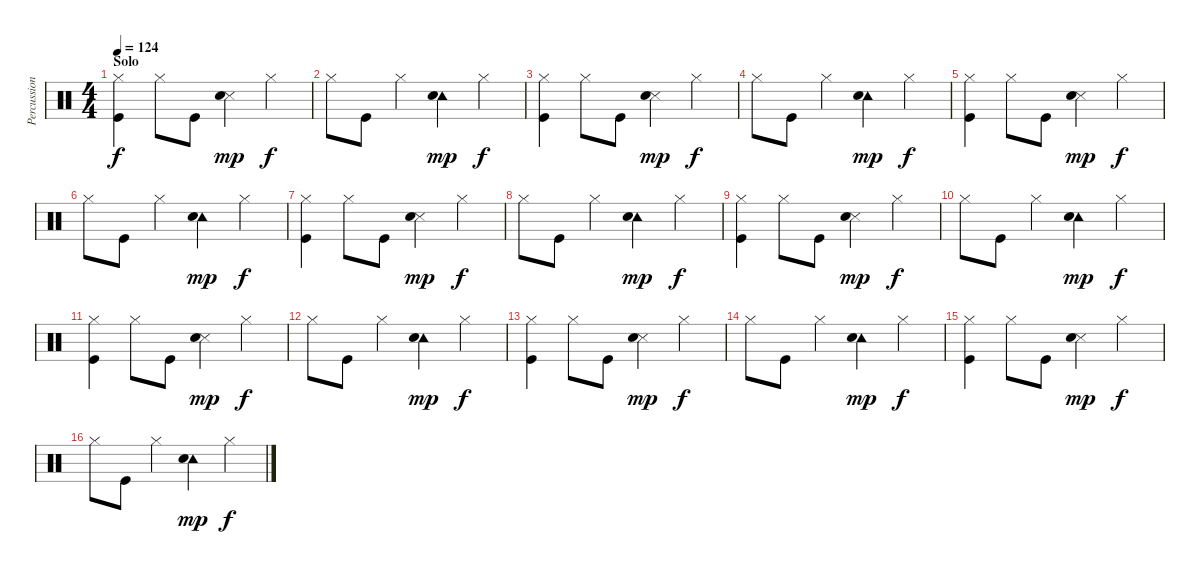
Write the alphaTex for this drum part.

\track ("Percussion" "Percussion") {instrument percussion}
\staff {score}
\articulation defaults
\ts (4 4)
\section ("" "Solo")
\tempo 124
\clef neutral
\ks c
("Hi-Hat (closed)" "Kick (hit)").4{dy f} "Hi-Hat (closed)".8 "Kick (hit)".8 ("Snare (side stick) 3" "Snare (hit) 2").4{dy mp} "Hi-Hat (closed)".4{dy f} |
"Hi-Hat (closed)".8 "Kick (hit)".8 "Hi-Hat (closed)".4 ("Tambourine (hit)" "Snare (hit) 2").4{dy mp} "Hi-Hat (closed)".4{dy f} |
("Hi-Hat (closed)" "Kick (hit)").4 "Hi-Hat (closed)".8 "Kick (hit)".8 ("Snare (side stick) 3" "Snare (hit) 2").4{dy mp} "Hi-Hat (closed)".4{dy f} |
"Hi-Hat (closed)".8 "Kick (hit)".8 "Hi-Hat (closed)".4 ("Tambourine (hit)" "Snare (hit) 2").4{dy mp} "Hi-Hat (closed)".4{dy f} |
("Hi-Hat (closed)" "Kick (hit)").4 "Hi-Hat (closed)".8 "Kick (hit)".8 ("Snare (side stick) 3" "Snare (hit) 2").4{dy mp} "Hi-Hat (closed)".4{dy f} |
"Hi-Hat (closed)".8 "Kick (hit)".8 "Hi-Hat (closed)".4 ("Tambourine (hit)" "Snare (hit) 2").4{dy mp} "Hi-Hat (closed)".4{dy f} |
("Hi-Hat (closed)" "Kick (hit)").4 "Hi-Hat (closed)".8 "Kick (hit)".8 ("Snare (side stick) 3" "Snare (hit) 2").4{dy mp} "Hi-Hat (closed)".4{dy f} |
"Hi-Hat (closed)".8 "Kick (hit)".8 "Hi-Hat (closed)".4 ("Tambourine (hit)" "Snare (hit) 2").4{dy mp} "Hi-Hat (closed)".4{dy f} |
("Hi-Hat (closed)" "Kick (hit)").4 "Hi-Hat (closed)".8 "Kick (hit)".8 ("Snare (side stick) 3" "Snare (hit) 2").4{dy mp} "Hi-Hat (closed)".4{dy f} |
"Hi-Hat (closed)".8 "Kick (hit)".8 "Hi-Hat (closed)".4 ("Tambourine (hit)" "Snare (hit) 2").4{dy mp} "Hi-Hat (closed)".4{dy f} |
("Hi-Hat (closed)" "Kick (hit)").4 "Hi-Hat (closed)".8 "Kick (hit)".8 ("Snare (side stick) 3" "Snare (hit) 2").4{dy mp} "Hi-Hat (closed)".4{dy f} |
"Hi-Hat (closed)".8 "Kick (hit)".8 "Hi-Hat (closed)".4 ("Tambourine (hit)" "Snare (hit) 2").4{dy mp} "Hi-Hat (closed)".4{dy f} |
("Hi-Hat (closed)" "Kick (hit)").4 "Hi-Hat (closed)".8 "Kick (hit)".8 ("Snare (side stick) 3" "Snare (hit) 2").4{dy mp} "Hi-Hat (closed)".4{dy f} |
"Hi-Hat (closed)".8 "Kick (hit)".8 "Hi-Hat (closed)".4 ("Tambourine (hit)" "Snare (hit) 2").4{dy mp} "Hi-Hat (closed)".4{dy f} |
("Hi-Hat (closed)" "Kick (hit)").4 "Hi-Hat (closed)".8 "Kick (hit)".8 ("Snare (side stick) 3" "Snare (hit) 2").4{dy mp} "Hi-Hat (closed)".4{dy f} |
"Hi-Hat (closed)".8 "Kick (hit)".8 "Hi-Hat (closed)".4 ("Tambourine (hit)" "Snare (hit) 2").4{dy mp} "Hi-Hat (closed)".4{dy f}
